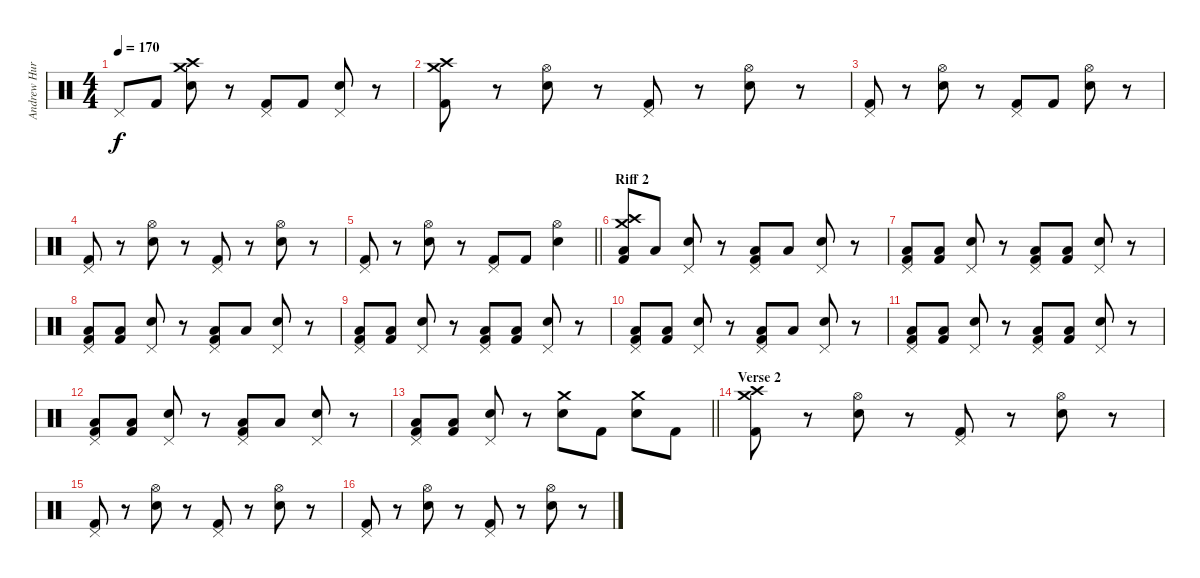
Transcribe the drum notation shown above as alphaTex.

\track ("Andrew Hurley (Drums)" "Andrew Hur") {instrument percussion}
\staff {score}
\articulation defaults
\ts (4 4)
\tempo 170
\clef neutral
\ks c "Pedal Hi-Hat (hit)".8{dy f} "Kick (hit) 2".8
("Crash medium (hit)" "Crash high (hit)" "Electric Snare (hit)").8 r.8 ("Pedal Hi-Hat (hit)" "Kick (hit) 2").8 "Kick (hit) 2".8 ("Pedal Hi-Hat (hit)" "Electric Snare (hit)").8 r.8 |
("Crash high (hit)" "Crash medium (hit)" "Kick (hit) 2").8 r.8 ("Hi-Hat (open)" "Electric Snare (hit)").8 r.8 ("Pedal Hi-Hat (hit)" "Kick (hit) 2").8 r.8 ("Hi-Hat (open)" "Electric Snare (hit)").8 r.8 |
("Pedal Hi-Hat (hit)" "Kick (hit) 2").8 r.8 ("Hi-Hat (open)" "Electric Snare (hit)").8 r.8 ("Pedal Hi-Hat (hit)" "Kick (hit) 2").8 "Kick (hit) 2".8 ("Hi-Hat (open)" "Electric Snare (hit)").8 r.8 |
("Pedal Hi-Hat (hit)" "Kick (hit) 2").8 r.8 ("Hi-Hat (open)" "Electric Snare (hit)").8 r.8 ("Pedal Hi-Hat (hit)" "Kick (hit) 2").8 r.8 ("Hi-Hat (open)" "Electric Snare (hit)").8 r.8 |
\barLineRight lightlight
("Pedal Hi-Hat (hit)" "Kick (hit) 2").8 r.8 ("Hi-Hat (open)" "Electric Snare (hit)").8 r.8 ("Pedal Hi-Hat (hit)" "Kick (hit) 2").8 "Kick (hit) 2".8 ("Hi-Hat (open)" "Electric Snare (hit)").4 |
\section ("" "Riff 2")
("Crash high (hit)" "Crash medium (hit)" "Low Floor Tom (hit)" "Kick (hit) 2").8 "Low Floor Tom (hit)".8 ("Pedal Hi-Hat (hit)" "Electric Snare (hit)").8 r.8 ("Pedal Hi-Hat (hit)" "Low Floor Tom (hit)" "Kick (hit) 2").8 "Low Floor Tom (hit)".8 ("Pedal Hi-Hat (hit)" "Electric Snare (hit)").8 r.8 |
("Pedal Hi-Hat (hit)" "Low Floor Tom (hit)" "Kick (hit) 2").8 ("Low Floor Tom (hit)" "Kick (hit) 2").8 ("Pedal Hi-Hat (hit)" "Electric Snare (hit)").8 r.8 ("Pedal Hi-Hat (hit)" "Low Floor Tom (hit)" "Kick (hit) 2").8 ("Low Floor Tom (hit)" "Kick (hit) 2").8 ("Pedal Hi-Hat (hit)" "Electric Snare (hit)").8 r.8 |
("Pedal Hi-Hat (hit)" "Low Floor Tom (hit)" "Kick (hit) 2").8 ("Low Floor Tom (hit)" "Kick (hit) 2").8 ("Pedal Hi-Hat (hit)" "Electric Snare (hit)").8 r.8 ("Pedal Hi-Hat (hit)" "Low Floor Tom (hit)" "Kick (hit) 2").8 "Low Floor Tom (hit)".8 ("Pedal Hi-Hat (hit)" "Electric Snare (hit)").8 r.8 |
("Pedal Hi-Hat (hit)" "Low Floor Tom (hit)" "Kick (hit) 2").8 ("Low Floor Tom (hit)" "Kick (hit) 2").8 ("Pedal Hi-Hat (hit)" "Electric Snare (hit)").8 r.8 ("Pedal Hi-Hat (hit)" "Low Floor Tom (hit)" "Kick (hit) 2").8 ("Low Floor Tom (hit)" "Kick (hit) 2").8 ("Pedal Hi-Hat (hit)" "Electric Snare (hit)").8 r.8 |
("Pedal Hi-Hat (hit)" "Low Floor Tom (hit)" "Kick (hit) 2").8 ("Low Floor Tom (hit)" "Kick (hit) 2").8 ("Pedal Hi-Hat (hit)" "Electric Snare (hit)").8 r.8 ("Pedal Hi-Hat (hit)" "Low Floor Tom (hit)" "Kick (hit) 2").8 "Low Floor Tom (hit)".8 ("Pedal Hi-Hat (hit)" "Electric Snare (hit)").8 r.8 |
("Pedal Hi-Hat (hit)" "Low Floor Tom (hit)" "Kick (hit) 2").8 ("Low Floor Tom (hit)" "Kick (hit) 2").8 ("Pedal Hi-Hat (hit)" "Electric Snare (hit)").8 r.8 ("Pedal Hi-Hat (hit)" "Low Floor Tom (hit)" "Kick (hit) 2").8 ("Low Floor Tom (hit)" "Kick (hit) 2").8 ("Pedal Hi-Hat (hit)" "Electric Snare (hit)").8 r.8 |
("Pedal Hi-Hat (hit)" "Low Floor Tom (hit)" "Kick (hit) 2").8 ("Low Floor Tom (hit)" "Kick (hit) 2").8 ("Pedal Hi-Hat (hit)" "Electric Snare (hit)").8 r.8 ("Pedal Hi-Hat (hit)" "Low Floor Tom (hit)" "Kick (hit) 2").8 "Low Floor Tom (hit)".8 ("Pedal Hi-Hat (hit)" "Electric Snare (hit)").8 r.8 |
\barLineRight lightlight
("Pedal Hi-Hat (hit)" "Low Floor Tom (hit)" "Kick (hit) 2").8 ("Low Floor Tom (hit)" "Kick (hit) 2").8 ("Pedal Hi-Hat (hit)" "Electric Snare (hit)").8 r.8 ("Crash medium (hit)" "Electric Snare (hit)").8 "Kick (hit) 2".8 ("Crash medium (hit)" "Electric Snare (hit)").8 "Kick (hit) 2".8 |
\section ("" "Verse 2")
("Crash high (hit)" "Crash medium (hit)" "Kick (hit) 2").8 r.8 ("Hi-Hat (open)" "Electric Snare (hit)").8 r.8 ("Pedal Hi-Hat (hit)" "Kick (hit) 2").8 r.8 ("Hi-Hat (open)" "Electric Snare (hit)").8 r.8 |
("Pedal Hi-Hat (hit)" "Kick (hit) 2").8 r.8 ("Hi-Hat (open)" "Electric Snare (hit)").8 r.8 ("Pedal Hi-Hat (hit)" "Kick (hit) 2").8 r.8 ("Hi-Hat (open)" "Electric Snare (hit)").8 r.8 |
("Pedal Hi-Hat (hit)" "Kick (hit) 2").8 r.8 ("Hi-Hat (open)" "Electric Snare (hit)").8 r.8 ("Pedal Hi-Hat (hit)" "Kick (hit) 2").8 r.8 ("Hi-Hat (open)" "Electric Snare (hit)").8 r.8
